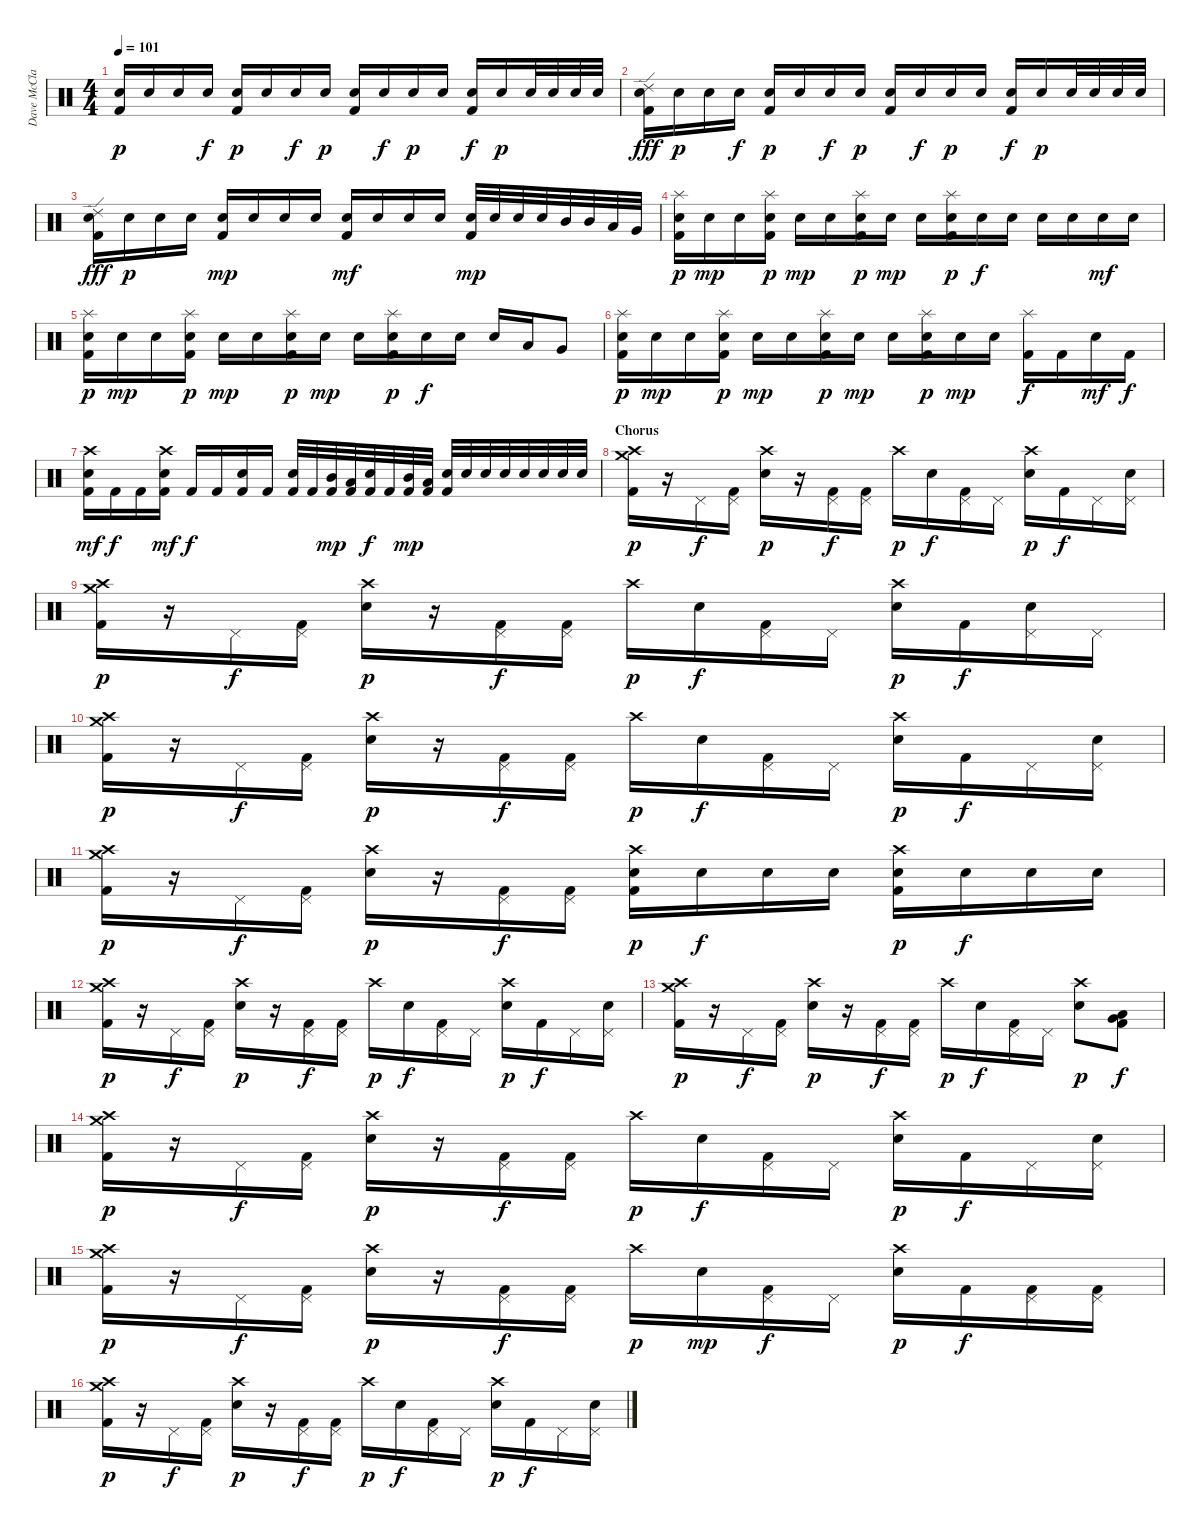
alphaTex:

\track ("Dave McClain" "Dave McCla") {instrument percussion}
\staff {score}
\articulation defaults
\ts (4 4)
\tempo 101
\clef neutral
\ks c
("Electric Snare (hit)" "Kick (hit) 2").16{dy p} "Electric Snare (hit)".16 "Electric Snare (hit)".16 "Electric Snare (hit)".16{dy f} ("Electric Snare (hit)" "Kick (hit) 2").16{dy p} "Electric Snare (hit)".16 "Electric Snare (hit)".16{dy f} "Electric Snare (hit)".16{dy p} ("Electric Snare (hit)" "Kick (hit) 2").16 "Electric Snare (hit)".16{dy f} "Electric Snare (hit)".16{dy p} "Electric Snare (hit)".16 ("Electric Snare (hit)" "Kick (hit) 2").16{dy f} "Electric Snare (hit)".16{dy p} "Electric Snare (hit)".32 "Electric Snare (hit)".32 "Electric Snare (hit)".32 "Electric Snare (hit)".32 |
("Electric Snare (hit)" "Ride (edge) 2" "Kick (hit) 2").16{dy fff} "Electric Snare (hit)".16{dy p} "Electric Snare (hit)".16 "Electric Snare (hit)".16{dy f} ("Electric Snare (hit)" "Kick (hit) 2").16{dy p} "Electric Snare (hit)".16 "Electric Snare (hit)".16{dy f} "Electric Snare (hit)".16{dy p} ("Electric Snare (hit)" "Kick (hit) 2").16 "Electric Snare (hit)".16{dy f} "Electric Snare (hit)".16{dy p} "Electric Snare (hit)".16 ("Electric Snare (hit)" "Kick (hit) 2").16{dy f} "Electric Snare (hit)".16{dy p} "Electric Snare (hit)".32 "Electric Snare (hit)".32 "Electric Snare (hit)".32 "Electric Snare (hit)".32 |
("Electric Snare (hit)" "Ride (edge) 2" "Kick (hit) 2").16{dy fff} "Electric Snare (hit)".16{dy p} "Electric Snare (hit)".16 "Electric Snare (hit)".16 ("Electric Snare (hit)" "Kick (hit) 2").16{dy mp} "Electric Snare (hit)".16 "Electric Snare (hit)".16 "Electric Snare (hit)".16 ("Electric Snare (hit)" "Kick (hit) 2").16{dy mf} "Electric Snare (hit)".16 "Electric Snare (hit)".16 "Electric Snare (hit)".16 ("Electric Snare (hit)" "Kick (hit) 2").32{dy mp} "Electric Snare (hit)".32 "Electric Snare (hit)".32 "Electric Snare (hit)".32 "Mid Tom (hit)".32 "Mid Tom (hit)".32 "Low Tom (hit)".32 "Very Low Tom (hit)".32 |
("Splash (hit)" "Electric Snare (hit)" "Kick (hit) 2").16{dy p} "Electric Snare (hit)".16{dy mp} "Electric Snare (hit)".16 ("Splash (hit)" "Electric Snare (hit)" "Kick (hit) 2").16{dy p} "Electric Snare (hit)".16{dy mp} "Electric Snare (hit)".16 ("Splash (hit)" "Electric Snare (hit)" "Kick (hit) 2").16{dy p} "Electric Snare (hit)".16{dy mp} "Electric Snare (hit)".16 ("Splash (hit)" "Electric Snare (hit)" "Kick (hit) 2").16{dy p} "Electric Snare (hit)".16{dy f} "Electric Snare (hit)".16 "Electric Snare (hit)".16 "Electric Snare (hit)".16 "Electric Snare (hit)".16{dy mf} "Electric Snare (hit)".16 |
("Splash (hit)" "Electric Snare (hit)" "Kick (hit) 2").16{dy p} "Electric Snare (hit)".16{dy mp} "Electric Snare (hit)".16 ("Splash (hit)" "Electric Snare (hit)" "Kick (hit) 2").16{dy p} "Electric Snare (hit)".16{dy mp} "Electric Snare (hit)".16 ("Splash (hit)" "Electric Snare (hit)" "Kick (hit) 2").16{dy p} "Electric Snare (hit)".16{dy mp} "Electric Snare (hit)".16 ("Splash (hit)" "Electric Snare (hit)" "Kick (hit) 2").16{dy p} "Electric Snare (hit)".16{dy f} "Electric Snare (hit)".16 "Electric Snare (hit)".16 "Low Tom (hit)".16 "Very Low Tom (hit)".8 |
("Splash (hit)" "Electric Snare (hit)" "Kick (hit) 2").16{dy p} "Electric Snare (hit)".16{dy mp} "Electric Snare (hit)".16 ("Splash (hit)" "Electric Snare (hit)" "Kick (hit) 2").16{dy p} "Electric Snare (hit)".16{dy mp} "Electric Snare (hit)".16 ("Splash (hit)" "Electric Snare (hit)" "Kick (hit) 2").16{dy p} "Electric Snare (hit)".16{dy mp} "Electric Snare (hit)".16 ("Splash (hit)" "Electric Snare (hit)" "Kick (hit) 2").16{dy p} "Electric Snare (hit)".16{dy mp} "Electric Snare (hit)".16 ("Splash (hit)" "Kick (hit) 2").16{dy f} "Kick (hit) 2".16 "Electric Snare (hit)".16{dy mf} "Kick (hit) 2".16{dy f} |
("Crash high (hit)" "Electric Snare (hit)" "Kick (hit) 2").16{dy mf} "Kick (hit) 2".16{dy f} "Kick (hit) 2".16 ("Crash high (hit)" "Electric Snare (hit)" "Kick (hit) 2").16{dy mf} "Kick (hit) 2".16{dy f} "Kick (hit) 2".16 ("Electric Snare (hit)" "Kick (hit) 2").16 "Kick (hit) 2".16 ("Electric Snare (hit)" "Kick (hit) 2").32 "Kick (hit) 2".32 ("Mid Tom (hit)" "Kick (hit) 2").32{dy mp} ("Low Tom (hit)" "Kick (hit) 2").32 ("Electric Snare (hit)" "Kick (hit) 2").32{dy f} "Kick (hit) 2".32 ("Mid Tom (hit)" "Kick (hit) 2").32{dy mp} ("Low Tom (hit)" "Kick (hit) 2").32 ("Electric Snare (hit)" "Kick (hit) 2").32 "Electric Snare (hit)".32 "Electric Snare (hit)".32 "Electric Snare (hit)".32 "Electric Snare (hit)".32 "Electric Snare (hit)".32 "Electric Snare (hit)".32 "Electric Snare (hit)".32 |
\section ("" "Chorus")
("Crash medium (hit)" "Crash high (hit)" "Kick (hit) 2").16{dy p} r.16 "Pedal Hi-Hat (hit)".16{dy f} ("Pedal Hi-Hat (hit)" "Kick (hit) 2").16 ("Crash high (hit)" "Electric Snare (hit)").16{dy p} r.16 ("Pedal Hi-Hat (hit)" "Kick (hit) 2").16{dy f} ("Pedal Hi-Hat (hit)" "Kick (hit) 2").16 "Crash high (hit)".16{dy p} "Electric Snare (hit)".16{dy f} ("Pedal Hi-Hat (hit)" "Kick (hit) 2").16 "Pedal Hi-Hat (hit)".16 ("Crash high (hit)" "Electric Snare (hit)").16{dy p} "Kick (hit) 2".16{dy f} "Pedal Hi-Hat (hit)".16 ("Pedal Hi-Hat (hit)" "Electric Snare (hit)").16 |
("Crash medium (hit)" "Crash high (hit)" "Kick (hit) 2").16{dy p} r.16 "Pedal Hi-Hat (hit)".16{dy f} ("Pedal Hi-Hat (hit)" "Kick (hit) 2").16 ("Crash high (hit)" "Electric Snare (hit)").16{dy p} r.16 ("Pedal Hi-Hat (hit)" "Kick (hit) 2").16{dy f} ("Pedal Hi-Hat (hit)" "Kick (hit) 2").16 "Crash high (hit)".16{dy p} "Electric Snare (hit)".16{dy f} ("Pedal Hi-Hat (hit)" "Kick (hit) 2").16 "Pedal Hi-Hat (hit)".16 ("Crash high (hit)" "Electric Snare (hit)").16{dy p} "Kick (hit) 2".16{dy f} ("Pedal Hi-Hat (hit)" "Electric Snare (hit)").16 "Pedal Hi-Hat (hit)".16 |
("Crash medium (hit)" "Crash high (hit)" "Kick (hit) 2").16{dy p} r.16 "Pedal Hi-Hat (hit)".16{dy f} ("Pedal Hi-Hat (hit)" "Kick (hit) 2").16 ("Crash high (hit)" "Electric Snare (hit)").16{dy p} r.16 ("Pedal Hi-Hat (hit)" "Kick (hit) 2").16{dy f} ("Pedal Hi-Hat (hit)" "Kick (hit) 2").16 "Crash high (hit)".16{dy p} "Electric Snare (hit)".16{dy f} ("Pedal Hi-Hat (hit)" "Kick (hit) 2").16 "Pedal Hi-Hat (hit)".16 ("Crash high (hit)" "Electric Snare (hit)").16{dy p} "Kick (hit) 2".16{dy f} "Pedal Hi-Hat (hit)".16 ("Pedal Hi-Hat (hit)" "Electric Snare (hit)").16 |
("Crash medium (hit)" "Crash high (hit)" "Kick (hit) 2").16{dy p} r.16 "Pedal Hi-Hat (hit)".16{dy f} ("Pedal Hi-Hat (hit)" "Kick (hit) 2").16 ("Crash high (hit)" "Electric Snare (hit)").16{dy p} r.16 ("Pedal Hi-Hat (hit)" "Kick (hit) 2").16{dy f} ("Pedal Hi-Hat (hit)" "Kick (hit) 2").16 ("Crash high (hit)" "Electric Snare (hit)" "Kick (hit) 2").16{dy p} "Electric Snare (hit)".16{dy f} "Electric Snare (hit)".16 "Electric Snare (hit)".16 ("Crash high (hit)" "Electric Snare (hit)" "Kick (hit) 2").16{dy p} "Electric Snare (hit)".16{dy f} "Electric Snare (hit)".16 "Electric Snare (hit)".16 |
("Crash medium (hit)" "Crash high (hit)" "Kick (hit) 2").16{dy p} r.16 "Pedal Hi-Hat (hit)".16{dy f} ("Pedal Hi-Hat (hit)" "Kick (hit) 2").16 ("Crash high (hit)" "Electric Snare (hit)").16{dy p} r.16 ("Pedal Hi-Hat (hit)" "Kick (hit) 2").16{dy f} ("Pedal Hi-Hat (hit)" "Kick (hit) 2").16 "Crash high (hit)".16{dy p} "Electric Snare (hit)".16{dy f} ("Pedal Hi-Hat (hit)" "Kick (hit) 2").16 "Pedal Hi-Hat (hit)".16 ("Crash high (hit)" "Electric Snare (hit)").16{dy p} "Kick (hit) 2".16{dy f} "Pedal Hi-Hat (hit)".16 ("Pedal Hi-Hat (hit)" "Electric Snare (hit)").16 |
("Crash medium (hit)" "Crash high (hit)" "Kick (hit) 2").16{dy p} r.16 "Pedal Hi-Hat (hit)".16{dy f} ("Pedal Hi-Hat (hit)" "Kick (hit) 2").16 ("Crash high (hit)" "Electric Snare (hit)").16{dy p} r.16 ("Pedal Hi-Hat (hit)" "Kick (hit) 2").16{dy f} ("Pedal Hi-Hat (hit)" "Kick (hit) 2").16 "Crash high (hit)".16{dy p} "Electric Snare (hit)".16{dy f} ("Pedal Hi-Hat (hit)" "Kick (hit) 2").16 "Pedal Hi-Hat (hit)".16 ("Crash high (hit)" "Electric Snare (hit)").8{dy p} ("Very Low Tom (hit)" "Low Tom (hit)" "Kick (hit) 2").8{dy f} |
("Crash medium (hit)" "Crash high (hit)" "Kick (hit) 2").16{dy p} r.16 "Pedal Hi-Hat (hit)".16{dy f} ("Pedal Hi-Hat (hit)" "Kick (hit) 2").16 ("Crash high (hit)" "Electric Snare (hit)").16{dy p} r.16 ("Pedal Hi-Hat (hit)" "Kick (hit) 2").16{dy f} ("Pedal Hi-Hat (hit)" "Kick (hit) 2").16 "Crash high (hit)".16{dy p} "Electric Snare (hit)".16{dy f} ("Pedal Hi-Hat (hit)" "Kick (hit) 2").16 "Pedal Hi-Hat (hit)".16 ("Crash high (hit)" "Electric Snare (hit)").16{dy p} "Kick (hit) 2".16{dy f} "Pedal Hi-Hat (hit)".16 ("Pedal Hi-Hat (hit)" "Electric Snare (hit)").16 |
("Crash medium (hit)" "Crash high (hit)" "Kick (hit) 2").16{dy p} r.16 "Pedal Hi-Hat (hit)".16{dy f} ("Pedal Hi-Hat (hit)" "Kick (hit) 2").16 ("Crash high (hit)" "Electric Snare (hit)").16{dy p} r.16 ("Pedal Hi-Hat (hit)" "Kick (hit) 2").16{dy f} ("Pedal Hi-Hat (hit)" "Kick (hit) 2").16 "Crash high (hit)".16{dy p} "Electric Snare (hit)".16{dy mp} ("Pedal Hi-Hat (hit)" "Kick (hit) 2").16{dy f} "Pedal Hi-Hat (hit)".16 ("Crash high (hit)" "Electric Snare (hit)").16{dy p} "Kick (hit) 2".16{dy f} ("Pedal Hi-Hat (hit)" "Kick (hit) 2").16 ("Pedal Hi-Hat (hit)" "Kick (hit) 2").16 |
("Crash medium (hit)" "Crash high (hit)" "Kick (hit) 2").16{dy p} r.16 "Pedal Hi-Hat (hit)".16{dy f} ("Pedal Hi-Hat (hit)" "Kick (hit) 2").16 ("Crash high (hit)" "Electric Snare (hit)").16{dy p} r.16 ("Pedal Hi-Hat (hit)" "Kick (hit) 2").16{dy f} ("Pedal Hi-Hat (hit)" "Kick (hit) 2").16 "Crash high (hit)".16{dy p} "Electric Snare (hit)".16{dy f} ("Pedal Hi-Hat (hit)" "Kick (hit) 2").16 "Pedal Hi-Hat (hit)".16 ("Crash high (hit)" "Electric Snare (hit)").16{dy p} "Kick (hit) 2".16{dy f} "Pedal Hi-Hat (hit)".16 ("Pedal Hi-Hat (hit)" "Electric Snare (hit)").16
